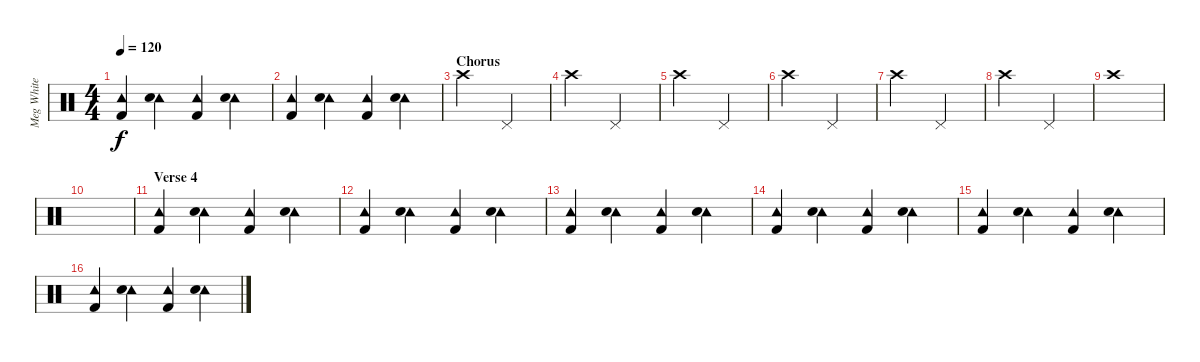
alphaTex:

\track ("Meg White" "Meg White") {instrument percussion}
\staff {score}
\articulation defaults
\ts (4 4)
\tempo 120
\clef neutral
\ks c
("Tambourine (hit)" "Kick (hit) 2").4{dy f} ("Tambourine (hit)" "Electric Snare (hit)").4 ("Tambourine (hit)" "Kick (hit) 2").4 ("Tambourine (hit)" "Electric Snare (hit)").4 |
("Tambourine (hit)" "Kick (hit) 2").4 ("Tambourine (hit)" "Electric Snare (hit)").4 ("Tambourine (hit)" "Kick (hit) 2").4 ("Tambourine (hit)" "Electric Snare (hit)").4 |
\section ("" "Chorus")
"Crash high (hit)".2 "Pedal Hi-Hat (hit)".2 |
"Crash high (hit)".2 "Pedal Hi-Hat (hit)".2 |
"Crash high (hit)".2 "Pedal Hi-Hat (hit)".2 |
"Crash high (hit)".2 "Pedal Hi-Hat (hit)".2 |
"Crash high (hit)".2 "Pedal Hi-Hat (hit)".2 |
"Crash high (hit)".2 "Pedal Hi-Hat (hit)".2 |
"Crash high (hit)".1 |
|
\section ("" "Verse 4")
("Tambourine (hit)" "Kick (hit) 2").4 ("Tambourine (hit)" "Electric Snare (hit)").4 ("Tambourine (hit)" "Kick (hit) 2").4 ("Tambourine (hit)" "Electric Snare (hit)").4 |
("Tambourine (hit)" "Kick (hit) 2").4 ("Tambourine (hit)" "Electric Snare (hit)").4 ("Tambourine (hit)" "Kick (hit) 2").4 ("Tambourine (hit)" "Electric Snare (hit)").4 |
("Tambourine (hit)" "Kick (hit) 2").4 ("Tambourine (hit)" "Electric Snare (hit)").4 ("Tambourine (hit)" "Kick (hit) 2").4 ("Tambourine (hit)" "Electric Snare (hit)").4 |
("Tambourine (hit)" "Kick (hit) 2").4 ("Tambourine (hit)" "Electric Snare (hit)").4 ("Tambourine (hit)" "Kick (hit) 2").4 ("Tambourine (hit)" "Electric Snare (hit)").4 |
("Tambourine (hit)" "Kick (hit) 2").4 ("Tambourine (hit)" "Electric Snare (hit)").4 ("Tambourine (hit)" "Kick (hit) 2").4 ("Tambourine (hit)" "Electric Snare (hit)").4 |
("Tambourine (hit)" "Kick (hit) 2").4 ("Tambourine (hit)" "Electric Snare (hit)").4 ("Tambourine (hit)" "Kick (hit) 2").4 ("Tambourine (hit)" "Electric Snare (hit)").4
